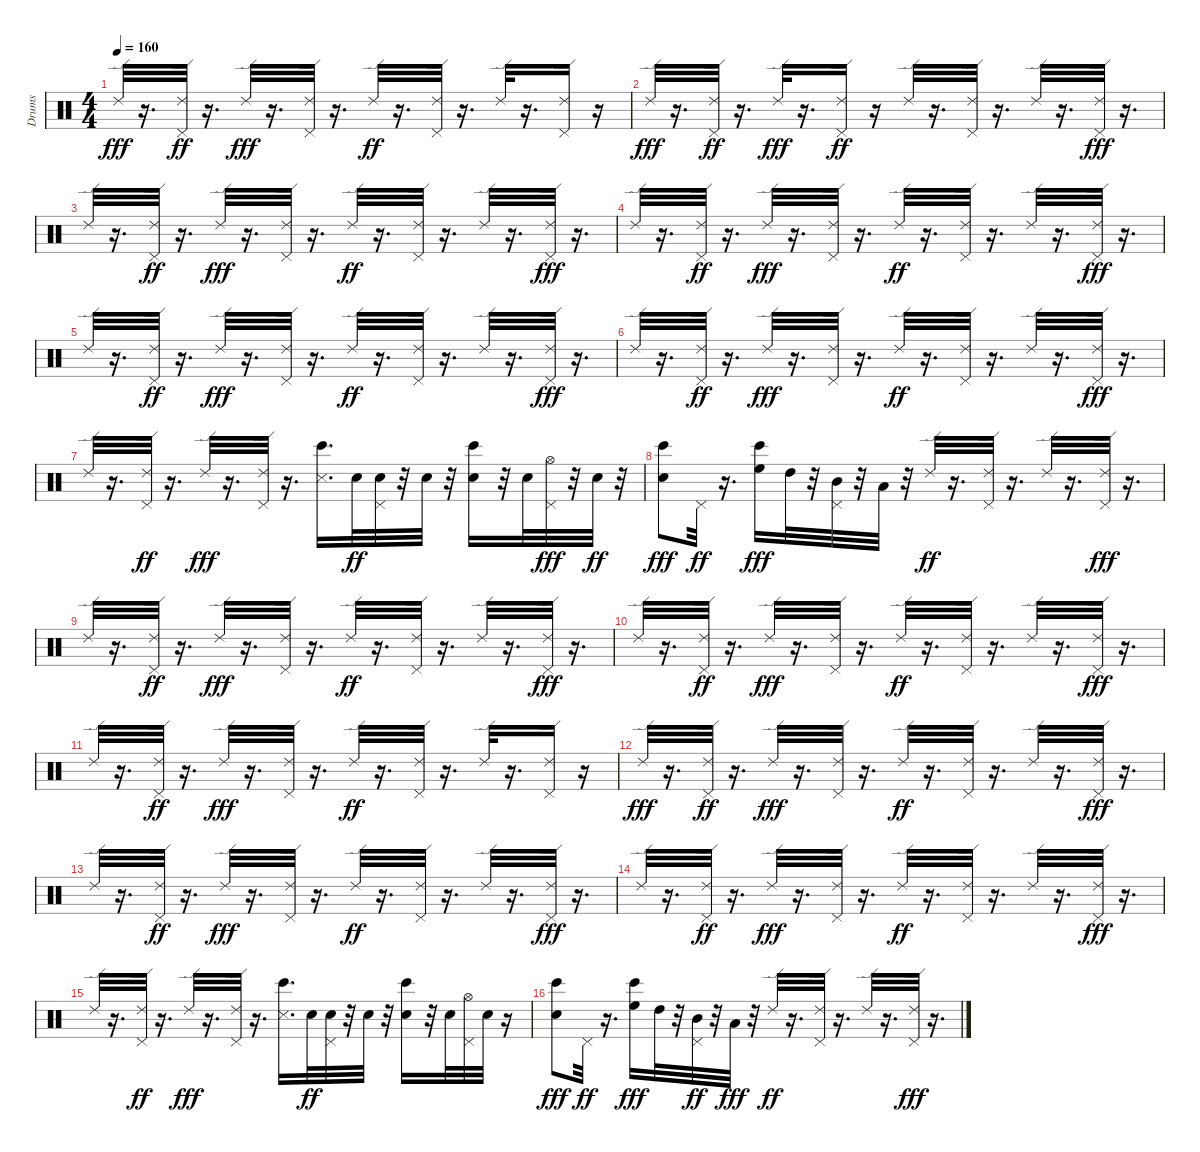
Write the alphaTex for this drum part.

\track ("Drums" "Drums") {instrument percussion}
\staff {score}
\articulation defaults
\ts (4 4)
\tempo 160
\clef neutral
\ks c "Ride (edge) 2".32{dy fff}
r.16{d} ("Pedal Hi-Hat (hit)" "Ride (edge) 2").32{dy ff} r.16{d} "Ride (edge) 2".32{dy fff} r.16{d} ("Pedal Hi-Hat (hit)" "Ride (edge) 2").32 r.16{d} "Ride (edge) 2".32{dy ff} r.16{d} ("Pedal Hi-Hat (hit)" "Ride (edge) 2").32 r.16{d} "Ride (edge) 2".32 r.16{d} ("Ride (edge) 2" "Pedal Hi-Hat (hit)").16 r.16 |
"Ride (edge) 2".32{dy fff} r.16{d} ("Pedal Hi-Hat (hit)" "Ride (edge) 2").32{dy ff} r.16{d} "Ride (edge) 2".32{dy fff} r.16{d} ("Ride (edge) 2" "Pedal Hi-Hat (hit)").16{dy ff} r.16 "Ride (edge) 2".32 r.16{d} ("Pedal Hi-Hat (hit)" "Ride (edge) 2").32 r.16{d} "Ride (edge) 2".32 r.16{d} ("Pedal Hi-Hat (hit)" "Ride (edge) 2").32{dy fff} r.16{d} |
"Ride (edge) 2".32 r.16{d} ("Pedal Hi-Hat (hit)" "Ride (edge) 2").32{dy ff} r.16{d} "Ride (edge) 2".32{dy fff} r.16{d} ("Pedal Hi-Hat (hit)" "Ride (edge) 2").32 r.16{d} "Ride (edge) 2".32{dy ff} r.16{d} ("Pedal Hi-Hat (hit)" "Ride (edge) 2").32 r.16{d} "Ride (edge) 2".32 r.16{d} ("Pedal Hi-Hat (hit)" "Ride (edge) 2").32{dy fff} r.16{d} |
"Ride (edge) 2".32 r.16{d} ("Pedal Hi-Hat (hit)" "Ride (edge) 2").32{dy ff} r.16{d} "Ride (edge) 2".32{dy fff} r.16{d} ("Pedal Hi-Hat (hit)" "Ride (edge) 2").32 r.16{d} "Ride (edge) 2".32{dy ff} r.16{d} ("Pedal Hi-Hat (hit)" "Ride (edge) 2").32 r.16{d} "Ride (edge) 2".32 r.16{d} ("Pedal Hi-Hat (hit)" "Ride (edge) 2").32{dy fff} r.16{d} |
"Ride (edge) 2".32 r.16{d} ("Pedal Hi-Hat (hit)" "Ride (edge) 2").32{dy ff} r.16{d} "Ride (edge) 2".32{dy fff} r.16{d} ("Pedal Hi-Hat (hit)" "Ride (edge) 2").32 r.16{d} "Ride (edge) 2".32{dy ff} r.16{d} ("Pedal Hi-Hat (hit)" "Ride (edge) 2").32 r.16{d} "Ride (edge) 2".32 r.16{d} ("Pedal Hi-Hat (hit)" "Ride (edge) 2").32{dy fff} r.16{d} |
"Ride (edge) 2".32 r.16{d} ("Pedal Hi-Hat (hit)" "Ride (edge) 2").32{dy ff} r.16{d} "Ride (edge) 2".32{dy fff} r.16{d} ("Pedal Hi-Hat (hit)" "Ride (edge) 2").32 r.16{d} "Ride (edge) 2".32{dy ff} r.16{d} ("Pedal Hi-Hat (hit)" "Ride (edge) 2").32 r.16{d} "Ride (edge) 2".32 r.16{d} ("Pedal Hi-Hat (hit)" "Ride (edge) 2").32{dy fff} r.16{d} |
"Ride (edge) 2".32 r.16{d} ("Pedal Hi-Hat (hit)" "Ride (edge) 2").32{dy ff} r.16{d} "Ride (edge) 2".32{dy fff} r.16{d} ("Pedal Hi-Hat (hit)" "Ride (edge) 2").32 r.16{d} ("Bongo High (hit)" "Snare (side stick) 3").16{d} "Electric Snare (hit)".32{dy ff} ("Electric Snare (hit)" "Pedal Hi-Hat (hit)").32 r.32 "Electric Snare (hit)".32 r.32 ("Bongo High (hit)" "Electric Snare (hit)").16 r.32 "Electric Snare (hit)".32 ("Pedal Hi-Hat (hit)" "Hi-Hat (open)").32{dy fff} r.32 "Electric Snare (hit)".32{dy ff} r.32 |
("Bongo High (hit)" "Electric Snare (hit)").8{dy fff} "Pedal Hi-Hat (hit)".32{dy ff} r.16{d} ("Bongo High (hit)" "High Floor Tom (hit)").16{dy fff} "High Tom (hit)".32 r.32 ("Pedal Hi-Hat (hit)" "Mid Tom (hit)").32 r.32 "Low Tom (hit)".32 r.32 "Ride (edge) 2".32{dy ff} r.16{d} ("Pedal Hi-Hat (hit)" "Ride (edge) 2").32 r.16{d} "Ride (edge) 2".32 r.16{d} ("Pedal Hi-Hat (hit)" "Ride (edge) 2").32{dy fff} r.16{d} |
"Ride (edge) 2".32 r.16{d} ("Pedal Hi-Hat (hit)" "Ride (edge) 2").32{dy ff} r.16{d} "Ride (edge) 2".32{dy fff} r.16{d} ("Pedal Hi-Hat (hit)" "Ride (edge) 2").32 r.16{d} "Ride (edge) 2".32{dy ff} r.16{d} ("Pedal Hi-Hat (hit)" "Ride (edge) 2").32 r.16{d} "Ride (edge) 2".32 r.16{d} ("Pedal Hi-Hat (hit)" "Ride (edge) 2").32{dy fff} r.16{d} |
"Ride (edge) 2".32 r.16{d} ("Pedal Hi-Hat (hit)" "Ride (edge) 2").32{dy ff} r.16{d} "Ride (edge) 2".32{dy fff} r.16{d} ("Pedal Hi-Hat (hit)" "Ride (edge) 2").32 r.16{d} "Ride (edge) 2".32{dy ff} r.16{d} ("Pedal Hi-Hat (hit)" "Ride (edge) 2").32 r.16{d} "Ride (edge) 2".32 r.16{d} ("Pedal Hi-Hat (hit)" "Ride (edge) 2").32{dy fff} r.16{d} |
"Ride (edge) 2".32 r.16{d} ("Pedal Hi-Hat (hit)" "Ride (edge) 2").32{dy ff} r.16{d} "Ride (edge) 2".32{dy fff} r.16{d} ("Pedal Hi-Hat (hit)" "Ride (edge) 2").32 r.16{d} "Ride (edge) 2".32{dy ff} r.16{d} ("Pedal Hi-Hat (hit)" "Ride (edge) 2").32 r.16{d} "Ride (edge) 2".32 r.16{d} ("Ride (edge) 2" "Pedal Hi-Hat (hit)").16 r.16 |
"Ride (edge) 2".32{dy fff} r.16{d} ("Pedal Hi-Hat (hit)" "Ride (edge) 2").32{dy ff} r.16{d} "Ride (edge) 2".32{dy fff} r.16{d} ("Pedal Hi-Hat (hit)" "Ride (edge) 2").32 r.16{d} "Ride (edge) 2".32{dy ff} r.16{d} ("Pedal Hi-Hat (hit)" "Ride (edge) 2").32 r.16{d} "Ride (edge) 2".32 r.16{d} ("Pedal Hi-Hat (hit)" "Ride (edge) 2").32{dy fff} r.16{d} |
"Ride (edge) 2".32 r.16{d} ("Pedal Hi-Hat (hit)" "Ride (edge) 2").32{dy ff} r.16{d} "Ride (edge) 2".32{dy fff} r.16{d} ("Pedal Hi-Hat (hit)" "Ride (edge) 2").32 r.16{d} "Ride (edge) 2".32{dy ff} r.16{d} ("Pedal Hi-Hat (hit)" "Ride (edge) 2").32 r.16{d} "Ride (edge) 2".32 r.16{d} ("Pedal Hi-Hat (hit)" "Ride (edge) 2").32{dy fff} r.16{d} |
"Ride (edge) 2".32 r.16{d} ("Pedal Hi-Hat (hit)" "Ride (edge) 2").32{dy ff} r.16{d} "Ride (edge) 2".32{dy fff} r.16{d} ("Pedal Hi-Hat (hit)" "Ride (edge) 2").32 r.16{d} "Ride (edge) 2".32{dy ff} r.16{d} ("Pedal Hi-Hat (hit)" "Ride (edge) 2").32 r.16{d} "Ride (edge) 2".32 r.16{d} ("Pedal Hi-Hat (hit)" "Ride (edge) 2").32{dy fff} r.16{d} |
"Ride (edge) 2".32 r.16{d} ("Pedal Hi-Hat (hit)" "Ride (edge) 2").32{dy ff} r.16{d} "Ride (edge) 2".32{dy fff} r.16{d} ("Pedal Hi-Hat (hit)" "Ride (edge) 2").32 r.16{d} ("Bongo High (hit)" "Snare (side stick) 3").16{d} "Electric Snare (hit)".32{dy ff} ("Pedal Hi-Hat (hit)" "Electric Snare (hit)").32 r.32 "Electric Snare (hit)".32 r.32 ("Bongo High (hit)" "Electric Snare (hit)").16 r.32 "Electric Snare (hit)".32 ("Hi-Hat (open)" "Pedal Hi-Hat (hit)").32 "Electric Snare (hit)".32 r.16 |
("Electric Snare (hit)" "Bongo High (hit)").8{dy fff} "Pedal Hi-Hat (hit)".32{dy ff} r.16{d} ("High Floor Tom (hit)" "Bongo High (hit)").16{dy fff} "High Tom (hit)".32 r.32 ("Mid Tom (hit)" "Pedal Hi-Hat (hit)").32{dy ff} r.32 "Low Tom (hit)".32{dy fff} r.32 "Ride (edge) 2".32{dy ff} r.16{d} ("Pedal Hi-Hat (hit)" "Ride (edge) 2").32 r.16{d} "Ride (edge) 2".32 r.16{d} ("Pedal Hi-Hat (hit)" "Ride (edge) 2").32{dy fff} r.16{d}
